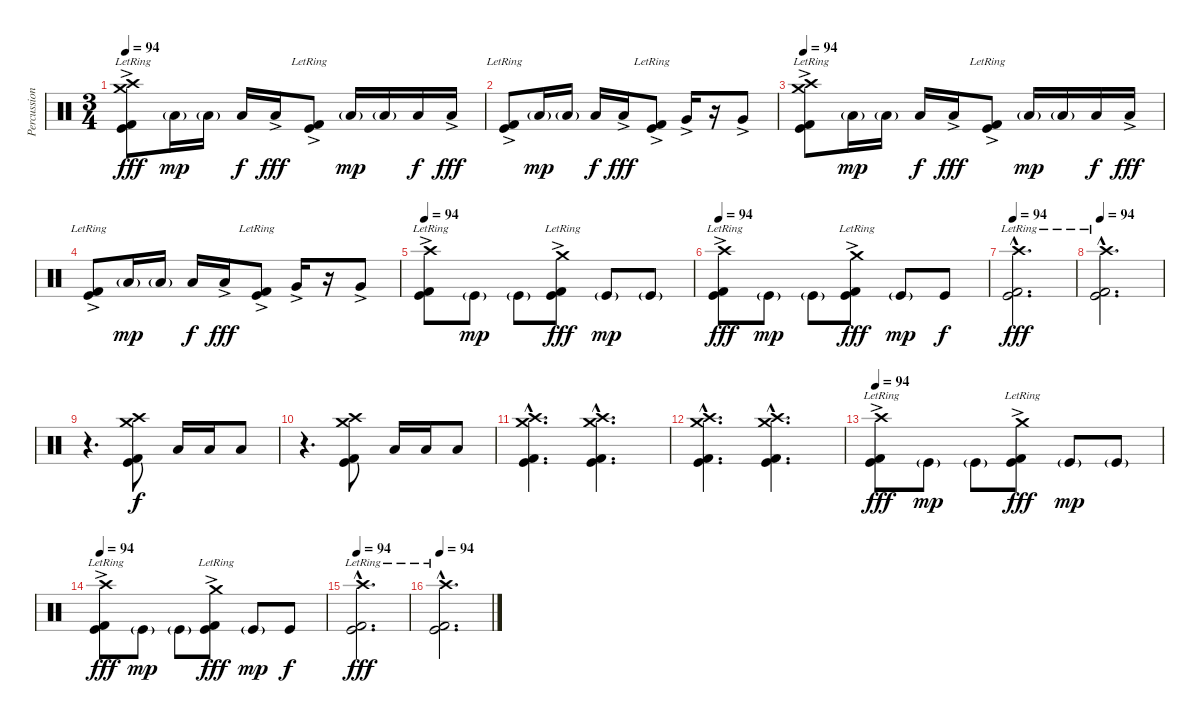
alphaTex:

\track ("Percussion" "Percussion") {instrument percussion}
\staff {score}
\articulation defaults
\ts (3 4)
\tempo 94
\clef neutral
\ks c
("Crash high (hit)" "Crash medium (hit)" "Kick (hit)" "Kick (hit) 2"{ac lr}).8{dy fff} "Low Tom (hit)"{g}.16{dy mp} "Low Tom (hit)"{g}.16 "Low Tom (hit)".16{dy f} "Low Tom (hit)"{ac}.16{dy fff} ("Kick (hit)" "Kick (hit) 2"{ac lr}).8 "Low Tom (hit)"{g}.16{dy mp} "Low Tom (hit)"{g}.16 "Low Tom (hit)".16{dy f} "Low Tom (hit)"{ac}.16{dy fff} |
("Kick (hit)" "Kick (hit) 2"{ac lr}).8 "Low Tom (hit)"{g}.16{dy mp} "Low Tom (hit)"{g}.16 "Low Tom (hit)".16{dy f} "Low Tom (hit)"{ac}.16{dy fff} ("Kick (hit)" "Kick (hit) 2"{ac lr}).8 "Very Low Tom (hit)"{ac}.16 r.16 "Very Low Tom (hit)"{ac}.8 |
\tempo 94
("Crash high (hit)" "Crash medium (hit)" "Kick (hit)" "Kick (hit) 2"{ac lr}).8 "Low Tom (hit)"{g}.16{dy mp} "Low Tom (hit)"{g}.16 "Low Tom (hit)".16{dy f} "Low Tom (hit)"{ac}.16{dy fff} ("Kick (hit)" "Kick (hit) 2"{ac lr}).8 "Low Tom (hit)"{g}.16{dy mp} "Low Tom (hit)"{g}.16 "Low Tom (hit)".16{dy f} "Low Tom (hit)"{ac}.16{dy fff} |
("Kick (hit)" "Kick (hit) 2"{ac lr}).8 "Low Tom (hit)"{g}.16{dy mp} "Low Tom (hit)"{g}.16 "Low Tom (hit)".16{dy f} "Low Tom (hit)"{ac}.16{dy fff} ("Kick (hit)" "Kick (hit) 2"{ac lr}).8 "Very Low Tom (hit)"{ac}.16 r.16 "Very Low Tom (hit)"{ac}.8 |
\tempo 94
("Crash high (hit)" "Kick (hit)" "Kick (hit) 2"{ac lr}).8 "Kick (hit)"{g}.8{dy mp} "Kick (hit)"{g}.8 ("Crash medium (hit)" "Kick (hit)" "Kick (hit) 2"{ac lr}).8{dy fff} "Kick (hit)"{g}.8{dy mp} "Kick (hit)"{g}.8 |
\tempo 94
("Crash high (hit)" "Kick (hit)" "Kick (hit) 2"{ac lr}).8{dy fff} "Kick (hit)"{g}.8{dy mp} "Kick (hit)"{g}.8 ("Crash medium (hit)" "Kick (hit)" "Kick (hit) 2"{ac lr}).8{dy fff} "Kick (hit)"{g}.8{dy mp} "Kick (hit)".8{dy f} |
\tempo 94
("Crash high (hit)"{hac} "Kick (hit)"{hac} "Kick (hit) 2"{hac lr}).2{d dy fff} |
\tempo 94
("Crash high (hit)"{hac} "Kick (hit)"{hac} "Kick (hit) 2"{hac lr}).2{d} |
r.4{d} ("Crash high (hit)" "Crash medium (hit)" "Kick (hit)" "Kick (hit) 2").8{dy f} "Low Tom (hit)".16 "Low Tom (hit)".16 "Low Floor Tom (hit)".8 |
r.4{d} ("Crash high (hit)" "Crash medium (hit)" "Kick (hit)" "Kick (hit) 2").8 "Low Tom (hit)".16 "Low Tom (hit)".16 "Low Floor Tom (hit)".8 |
("Crash high (hit)"{hac} "Crash medium (hit)"{hac} "Kick (hit)"{hac} "Kick (hit) 2"{hac}).4{d} ("Crash high (hit)"{hac} "Crash medium (hit)"{hac} "Kick (hit)"{hac} "Kick (hit) 2"{hac}).4{d} |
("Crash high (hit)"{hac} "Crash medium (hit)"{hac} "Kick (hit)"{hac} "Kick (hit) 2"{hac}).4{d} ("Crash high (hit)"{hac} "Crash medium (hit)"{hac} "Kick (hit)"{hac} "Kick (hit) 2"{hac}).4{d} |
\tempo 94
("Crash high (hit)" "Kick (hit)" "Kick (hit) 2"{ac lr}).8{dy fff} "Kick (hit)"{g}.8{dy mp} "Kick (hit)"{g}.8 ("Crash medium (hit)" "Kick (hit)" "Kick (hit) 2"{ac lr}).8{dy fff} "Kick (hit)"{g}.8{dy mp} "Kick (hit)"{g}.8 |
\tempo 94
("Crash high (hit)" "Kick (hit)" "Kick (hit) 2"{ac lr}).8{dy fff} "Kick (hit)"{g}.8{dy mp} "Kick (hit)"{g}.8 ("Crash medium (hit)" "Kick (hit)" "Kick (hit) 2"{ac lr}).8{dy fff} "Kick (hit)"{g}.8{dy mp} "Kick (hit)".8{dy f} |
\tempo 94
("Crash high (hit)"{hac} "Kick (hit)"{hac} "Kick (hit) 2"{hac lr}).2{d dy fff} |
\tempo 94
("Crash high (hit)"{hac} "Kick (hit)"{hac} "Kick (hit) 2"{hac lr}).2{d}
